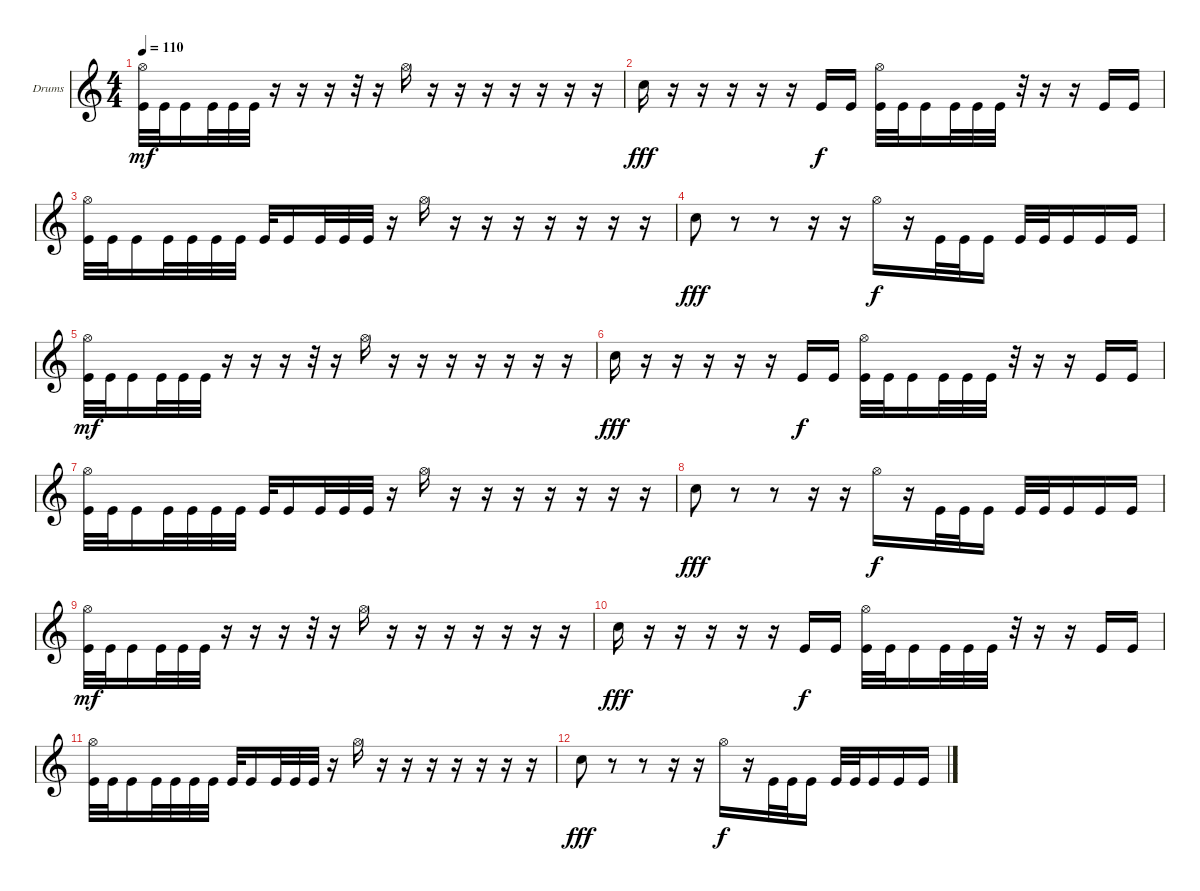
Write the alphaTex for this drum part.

\defaultSystemsLayout 4
\bracketExtendMode groupsimilarinstruments
\firstSystemTrackNameOrientation horizontal
\otherSystemsTrackNameOrientation horizontal
\track ("Drumkit" "Drums") {instrument percussion}
\staff {score}
\articulation defaults
\ts (4 4)
\tempo 110
\clef g2
\ks c
("Kick (hit)" "Hi-Hat (open)").32{dy mf} "Kick (hit)".32 "Kick (hit)".16 "Kick (hit)".32 "Kick (hit)".32 "Kick (hit)".32 r.16 r.16 r.16 r.32 r.16 "Hi-Hat (open)".16 r.16 r.16 r.16 r.16 r.16 r.16 r.16 |
"Snare (hit) 2".16{dy fff} r.16 r.16 r.16 r.16 r.16 "Kick (hit)".16{dy f} "Kick (hit)".16 ("Kick (hit)" "Hi-Hat (open)").32 "Kick (hit)".32 "Kick (hit)".16 "Kick (hit)".32 "Kick (hit)".32 "Kick (hit)".32 r.32 r.16 r.16 "Kick (hit)".16 "Kick (hit)".16 |
("Kick (hit)" "Hi-Hat (open)").32 "Kick (hit)".32 "Kick (hit)".16 "Kick (hit)".32 "Kick (hit)".32 "Kick (hit)".32 "Kick (hit)".32 "Kick (hit)".32 "Kick (hit)".16 "Kick (hit)".32 "Kick (hit)".32 "Kick (hit)".32 r.16 "Hi-Hat (open)".16 r.16 r.16 r.16 r.16 r.16 r.16 r.16 |
"Snare (hit) 2".8{dy fff} r.8 r.8 r.16 r.16 "Hi-Hat (open)".16{dy f} r.16 "Kick (hit)".32 "Kick (hit)".32 "Kick (hit)".16 "Kick (hit)".32 "Kick (hit)".32 "Kick (hit)".16 "Kick (hit)".16 "Kick (hit)".16 |
("Kick (hit)" "Hi-Hat (open)").32{dy mf} "Kick (hit)".32 "Kick (hit)".16 "Kick (hit)".32 "Kick (hit)".32 "Kick (hit)".32 r.16 r.16 r.16 r.32 r.16 "Hi-Hat (open)".16 r.16 r.16 r.16 r.16 r.16 r.16 r.16 |
"Snare (hit) 2".16{dy fff} r.16 r.16 r.16 r.16 r.16 "Kick (hit)".16{dy f} "Kick (hit)".16 ("Kick (hit)" "Hi-Hat (open)").32 "Kick (hit)".32 "Kick (hit)".16 "Kick (hit)".32 "Kick (hit)".32 "Kick (hit)".32 r.32 r.16 r.16 "Kick (hit)".16 "Kick (hit)".16 |
("Kick (hit)" "Hi-Hat (open)").32 "Kick (hit)".32 "Kick (hit)".16 "Kick (hit)".32 "Kick (hit)".32 "Kick (hit)".32 "Kick (hit)".32 "Kick (hit)".32 "Kick (hit)".16 "Kick (hit)".32 "Kick (hit)".32 "Kick (hit)".32 r.16 "Hi-Hat (open)".16 r.16 r.16 r.16 r.16 r.16 r.16 r.16 |
"Snare (hit) 2".8{dy fff} r.8 r.8 r.16 r.16 "Hi-Hat (open)".16{dy f} r.16 "Kick (hit)".32 "Kick (hit)".32 "Kick (hit)".16 "Kick (hit)".32 "Kick (hit)".32 "Kick (hit)".16 "Kick (hit)".16 "Kick (hit)".16 |
("Kick (hit)" "Hi-Hat (open)").32{dy mf} "Kick (hit)".32 "Kick (hit)".16 "Kick (hit)".32 "Kick (hit)".32 "Kick (hit)".32 r.16 r.16 r.16 r.32 r.16 "Hi-Hat (open)".16 r.16 r.16 r.16 r.16 r.16 r.16 r.16 |
"Snare (hit) 2".16{dy fff} r.16 r.16 r.16 r.16 r.16 "Kick (hit)".16{dy f} "Kick (hit)".16 ("Kick (hit)" "Hi-Hat (open)").32 "Kick (hit)".32 "Kick (hit)".16 "Kick (hit)".32 "Kick (hit)".32 "Kick (hit)".32 r.32 r.16 r.16 "Kick (hit)".16 "Kick (hit)".16 |
("Kick (hit)" "Hi-Hat (open)").32 "Kick (hit)".32 "Kick (hit)".16 "Kick (hit)".32 "Kick (hit)".32 "Kick (hit)".32 "Kick (hit)".32 "Kick (hit)".32 "Kick (hit)".16 "Kick (hit)".32 "Kick (hit)".32 "Kick (hit)".32 r.16 "Hi-Hat (open)".16 r.16 r.16 r.16 r.16 r.16 r.16 r.16 |
"Snare (hit) 2".8{dy fff} r.8 r.8 r.16 r.16 "Hi-Hat (open)".16{dy f} r.16 "Kick (hit)".32 "Kick (hit)".32 "Kick (hit)".16 "Kick (hit)".32 "Kick (hit)".32 "Kick (hit)".16 "Kick (hit)".16 "Kick (hit)".16
